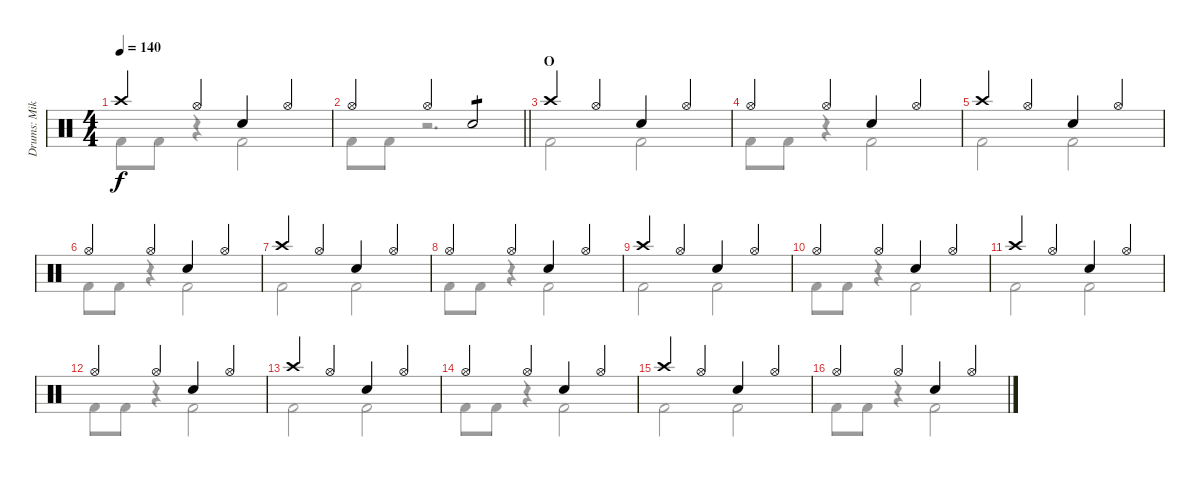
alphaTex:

\track ("Drums: Mike" "Drums: Mik") {instrument percussion}
\staff {score}
\articulation defaults
\voice
\ts (4 4)
\tempo 140
\clef neutral
\ks c "Crash high (hit)".4{dy f} "Hi-Hat (open)".4 "Snare (hit) 2".4 "Hi-Hat (open)".4
|
\barLineRight lightlight "Hi-Hat (open)".4 "Hi-Hat (open)".4 "Snare (hit) 2".2{tp 1}
|
\section ("" "O")
"Crash high (hit)".4 "Hi-Hat (open)".4 "Snare (hit) 2".4 "Hi-Hat (open)".4 |
"Hi-Hat (open)".4 "Hi-Hat (open)".4 "Snare (hit) 2".4 "Hi-Hat (open)".4 |
"Crash high (hit)".4 "Hi-Hat (open)".4 "Snare (hit) 2".4 "Hi-Hat (open)".4 |
"Hi-Hat (open)".4 "Hi-Hat (open)".4 "Snare (hit) 2".4 "Hi-Hat (open)".4 |
"Crash high (hit)".4 "Hi-Hat (open)".4 "Snare (hit) 2".4 "Hi-Hat (open)".4 |
"Hi-Hat (open)".4 "Hi-Hat (open)".4 "Snare (hit) 2".4 "Hi-Hat (open)".4 |
"Crash high (hit)".4 "Hi-Hat (open)".4 "Snare (hit) 2".4 "Hi-Hat (open)".4 |
"Hi-Hat (open)".4 "Hi-Hat (open)".4 "Snare (hit) 2".4 "Hi-Hat (open)".4 |
"Crash high (hit)".4 "Hi-Hat (open)".4 "Snare (hit) 2".4 "Hi-Hat (open)".4 |
"Hi-Hat (open)".4 "Hi-Hat (open)".4 "Snare (hit) 2".4 "Hi-Hat (open)".4 |
"Crash high (hit)".4 "Hi-Hat (open)".4 "Snare (hit) 2".4 "Hi-Hat (open)".4 |
"Hi-Hat (open)".4 "Hi-Hat (open)".4 "Snare (hit) 2".4 "Hi-Hat (open)".4 |
"Crash high (hit)".4 "Hi-Hat (open)".4 "Snare (hit) 2".4 "Hi-Hat (open)".4 |
"Hi-Hat (open)".4 "Hi-Hat (open)".4 "Snare (hit) 2".4 "Hi-Hat (open)".4
\voice
\clef neutral
\ottava regular
\simile none
\ks c "Kick (hit) 2".8{dy f} "Kick (hit) 2".8
r.4 "Kick (hit) 2".2 |
\barLineRight lightlight "Kick (hit) 2".8 "Kick (hit) 2".8
r.2{d} |
"Kick (hit) 2".2 "Kick (hit) 2".2 |
"Kick (hit) 2".8 "Kick (hit) 2".8 r.4 "Kick (hit) 2".2 |
"Kick (hit) 2".2 "Kick (hit) 2".2 |
"Kick (hit) 2".8 "Kick (hit) 2".8 r.4 "Kick (hit) 2".2 |
"Kick (hit) 2".2 "Kick (hit) 2".2 |
"Kick (hit) 2".8 "Kick (hit) 2".8 r.4 "Kick (hit) 2".2 |
"Kick (hit) 2".2 "Kick (hit) 2".2 |
"Kick (hit) 2".8 "Kick (hit) 2".8 r.4 "Kick (hit) 2".2 |
"Kick (hit) 2".2 "Kick (hit) 2".2 |
"Kick (hit) 2".8 "Kick (hit) 2".8 r.4 "Kick (hit) 2".2 |
"Kick (hit) 2".2 "Kick (hit) 2".2 |
"Kick (hit) 2".8 "Kick (hit) 2".8 r.4 "Kick (hit) 2".2 |
"Kick (hit) 2".2 "Kick (hit) 2".2 |
"Kick (hit) 2".8 "Kick (hit) 2".8 r.4 "Kick (hit) 2".2
